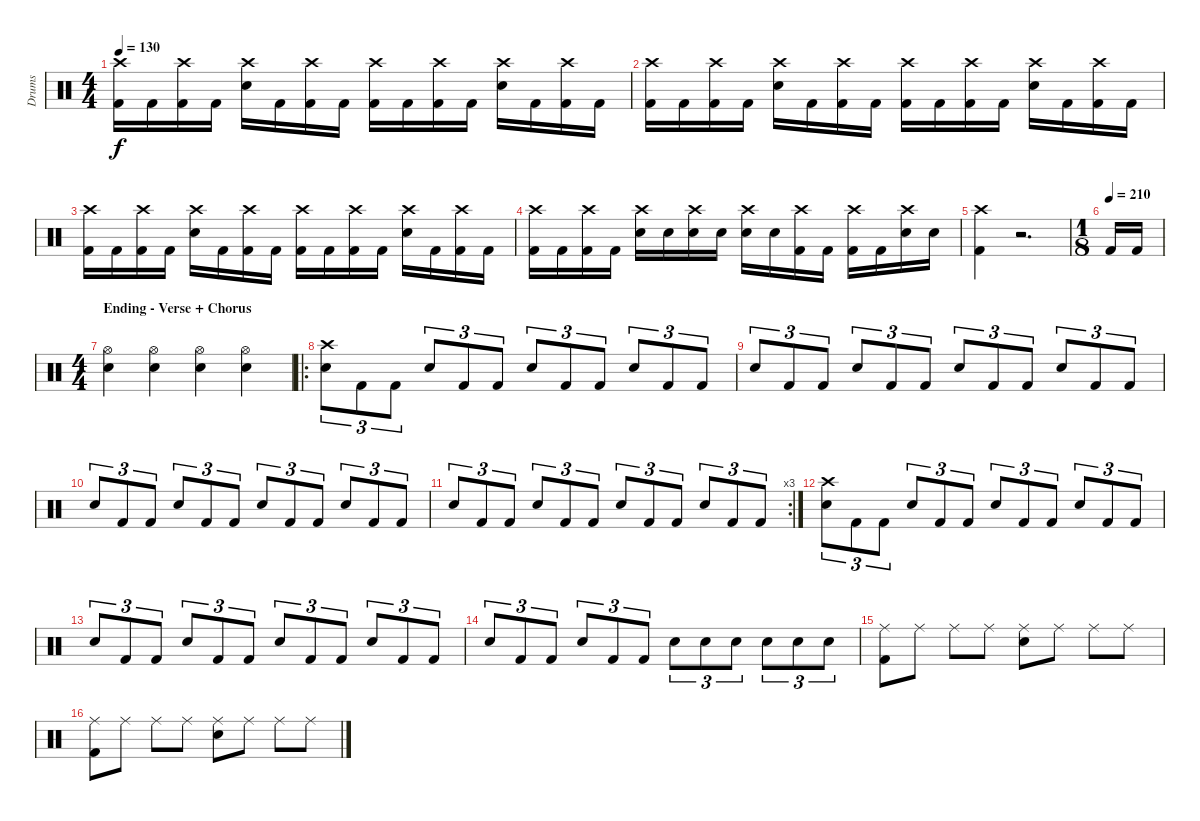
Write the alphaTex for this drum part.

\track ("Drums" "Drums") {instrument percussion}
\staff {score}
\articulation defaults
\ts (4 4)
\tempo 130
\clef neutral
\ks c
("Crash high (hit)" "Kick (hit) 2").16{dy f} "Kick (hit) 2".16 ("Crash high (hit)" "Kick (hit) 2").16 "Kick (hit) 2".16 ("Crash high (hit)" "Electric Snare (hit)").16 "Kick (hit) 2".16 ("Crash high (hit)" "Kick (hit) 2").16 "Kick (hit) 2".16 ("Crash high (hit)" "Kick (hit) 2").16 "Kick (hit) 2".16 ("Crash high (hit)" "Kick (hit) 2").16 "Kick (hit) 2".16 ("Crash high (hit)" "Electric Snare (hit)").16 "Kick (hit) 2".16 ("Crash high (hit)" "Kick (hit) 2").16 "Kick (hit) 2".16 |
("Crash high (hit)" "Kick (hit) 2").16 "Kick (hit) 2".16 ("Crash high (hit)" "Kick (hit) 2").16 "Kick (hit) 2".16 ("Crash high (hit)" "Electric Snare (hit)").16 "Kick (hit) 2".16 ("Crash high (hit)" "Kick (hit) 2").16 "Kick (hit) 2".16 ("Crash high (hit)" "Kick (hit) 2").16 "Kick (hit) 2".16 ("Crash high (hit)" "Kick (hit) 2").16 "Kick (hit) 2".16 ("Crash high (hit)" "Electric Snare (hit)").16 "Kick (hit) 2".16 ("Crash high (hit)" "Kick (hit) 2").16 "Kick (hit) 2".16 |
("Crash high (hit)" "Kick (hit) 2").16 "Kick (hit) 2".16 ("Crash high (hit)" "Kick (hit) 2").16 "Kick (hit) 2".16 ("Crash high (hit)" "Electric Snare (hit)").16 "Kick (hit) 2".16 ("Crash high (hit)" "Kick (hit) 2").16 "Kick (hit) 2".16 ("Crash high (hit)" "Kick (hit) 2").16 "Kick (hit) 2".16 ("Crash high (hit)" "Kick (hit) 2").16 "Kick (hit) 2".16 ("Crash high (hit)" "Electric Snare (hit)").16 "Kick (hit) 2".16 ("Crash high (hit)" "Kick (hit) 2").16 "Kick (hit) 2".16 |
("Crash high (hit)" "Kick (hit) 2").16 "Kick (hit) 2".16 ("Crash high (hit)" "Kick (hit) 2").16 "Kick (hit) 2".16 ("Crash high (hit)" "Electric Snare (hit)").16 "Electric Snare (hit)".16 ("Crash high (hit)" "Electric Snare (hit)").16 "Electric Snare (hit)".16 ("Crash high (hit)" "Electric Snare (hit)").16 "Electric Snare (hit)".16 ("Crash high (hit)" "Kick (hit) 2").16 "Kick (hit) 2".16 ("Crash high (hit)" "Kick (hit) 2").16 "Kick (hit) 2".16 ("Crash high (hit)" "Electric Snare (hit)").16 "Electric Snare (hit)".16 |
("Crash high (hit)" "Kick (hit) 2").4 r.2{d} |
\ts (1 8)
\tempo (210)
"Kick (hit) 2".16 "Kick (hit) 2".16 |
\ts (4 4)
\section ("" "Ending - Verse + Chorus")
("Hi-Hat (open)" "Electric Snare (hit)").4 ("Hi-Hat (open)" "Electric Snare (hit)").4 ("Hi-Hat (open)" "Electric Snare (hit)").4 ("Hi-Hat (open)" "Electric Snare (hit)").4 |
\ro
("Crash high (hit)" "Electric Snare (hit)").8{tu (3 2)} "Kick (hit) 2".8{tu (3 2)} "Kick (hit) 2".8{tu (3 2)} "Electric Snare (hit)".8{tu (3 2)} "Kick (hit) 2".8{tu (3 2)} "Kick (hit) 2".8{tu (3 2)} "Electric Snare (hit)".8{tu (3 2)} "Kick (hit) 2".8{tu (3 2)} "Kick (hit) 2".8{tu (3 2)} "Electric Snare (hit)".8{tu (3 2)} "Kick (hit) 2".8{tu (3 2)} "Kick (hit) 2".8{tu (3 2)} |
"Electric Snare (hit)".8{tu (3 2)} "Kick (hit) 2".8{tu (3 2)} "Kick (hit) 2".8{tu (3 2)} "Electric Snare (hit)".8{tu (3 2)} "Kick (hit) 2".8{tu (3 2)} "Kick (hit) 2".8{tu (3 2)} "Electric Snare (hit)".8{tu (3 2)} "Kick (hit) 2".8{tu (3 2)} "Kick (hit) 2".8{tu (3 2)} "Electric Snare (hit)".8{tu (3 2)} "Kick (hit) 2".8{tu (3 2)} "Kick (hit) 2".8{tu (3 2)} |
"Electric Snare (hit)".8{tu (3 2)} "Kick (hit) 2".8{tu (3 2)} "Kick (hit) 2".8{tu (3 2)} "Electric Snare (hit)".8{tu (3 2)} "Kick (hit) 2".8{tu (3 2)} "Kick (hit) 2".8{tu (3 2)} "Electric Snare (hit)".8{tu (3 2)} "Kick (hit) 2".8{tu (3 2)} "Kick (hit) 2".8{tu (3 2)} "Electric Snare (hit)".8{tu (3 2)} "Kick (hit) 2".8{tu (3 2)} "Kick (hit) 2".8{tu (3 2)} |
\rc 3 "Electric Snare (hit)".8{tu (3 2)} "Kick (hit) 2".8{tu (3 2)} "Kick (hit) 2".8{tu (3 2)} "Electric Snare (hit)".8{tu (3 2)} "Kick (hit) 2".8{tu (3 2)} "Kick (hit) 2".8{tu (3 2)} "Electric Snare (hit)".8{tu (3 2)} "Kick (hit) 2".8{tu (3 2)} "Kick (hit) 2".8{tu (3 2)} "Electric Snare (hit)".8{tu (3 2)} "Kick (hit) 2".8{tu (3 2)} "Kick (hit) 2".8{tu (3 2)}
|
("Crash high (hit)" "Electric Snare (hit)").8{tu (3 2)} "Kick (hit) 2".8{tu (3 2)} "Kick (hit) 2".8{tu (3 2)} "Electric Snare (hit)".8{tu (3 2)} "Kick (hit) 2".8{tu (3 2)} "Kick (hit) 2".8{tu (3 2)} "Electric Snare (hit)".8{tu (3 2)} "Kick (hit) 2".8{tu (3 2)} "Kick (hit) 2".8{tu (3 2)} "Electric Snare (hit)".8{tu (3 2)} "Kick (hit) 2".8{tu (3 2)} "Kick (hit) 2".8{tu (3 2)} |
"Electric Snare (hit)".8{tu (3 2)} "Kick (hit) 2".8{tu (3 2)} "Kick (hit) 2".8{tu (3 2)} "Electric Snare (hit)".8{tu (3 2)} "Kick (hit) 2".8{tu (3 2)} "Kick (hit) 2".8{tu (3 2)} "Electric Snare (hit)".8{tu (3 2)} "Kick (hit) 2".8{tu (3 2)} "Kick (hit) 2".8{tu (3 2)} "Electric Snare (hit)".8{tu (3 2)} "Kick (hit) 2".8{tu (3 2)} "Kick (hit) 2".8{tu (3 2)} |
"Electric Snare (hit)".8{tu (3 2)} "Kick (hit) 2".8{tu (3 2)} "Kick (hit) 2".8{tu (3 2)} "Electric Snare (hit)".8{tu (3 2)} "Kick (hit) 2".8{tu (3 2)} "Kick (hit) 2".8{tu (3 2)} "Electric Snare (hit)".8{tu (3 2)} "Electric Snare (hit)".8{tu (3 2)} "Electric Snare (hit)".8{tu (3 2)} "Electric Snare (hit)".8{tu (3 2)} "Electric Snare (hit)".8{tu (3 2)} "Electric Snare (hit)".8{tu (3 2)} |
("Ride (middle)" "Kick (hit) 2").8 "Ride (middle)".8 "Ride (middle)".8 "Ride (middle)".8 ("Ride (middle)" "Electric Snare (hit)").8 "Ride (middle)".8 "Ride (middle)".8 "Ride (middle)".8 |
("Ride (middle)" "Kick (hit) 2").8 "Ride (middle)".8 "Ride (middle)".8 "Ride (middle)".8 ("Ride (middle)" "Electric Snare (hit)").8 "Ride (middle)".8 "Ride (middle)".8 "Ride (middle)".8
